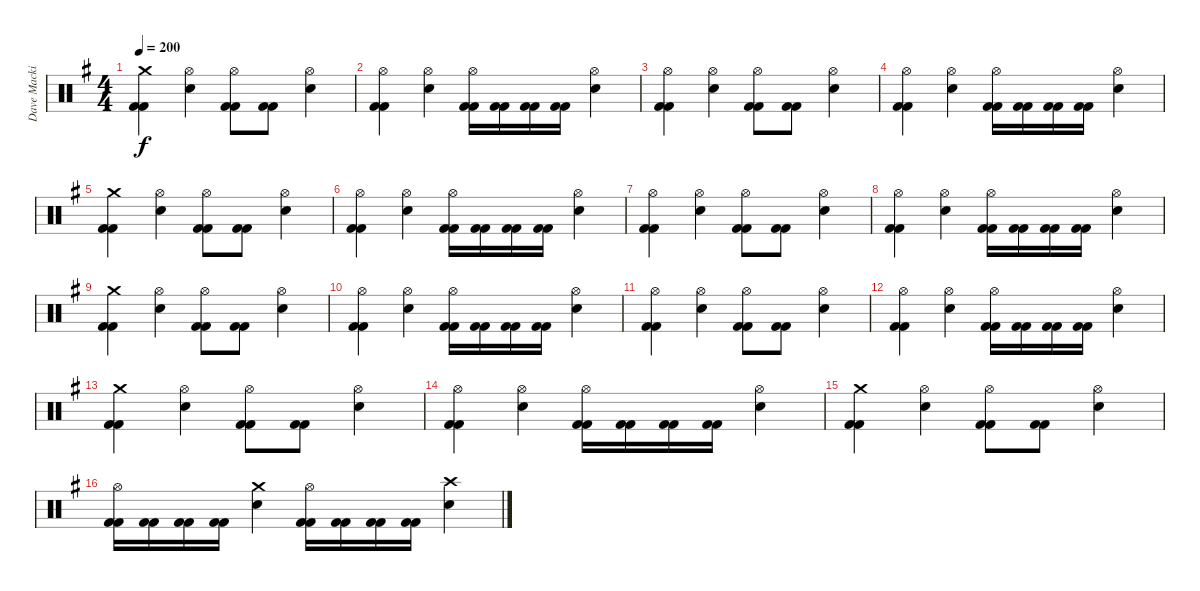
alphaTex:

\track ("Dave Mackintosh" "Dave Macki") {instrument percussion}
\staff {score}
\articulation defaults
\ts (4 4)
\tempo 200
\clef neutral
\ks g
("Crash medium (hit)" "Kick (hit) 2" "Kick (hit) 2").4{dy f} ("Hi-Hat (open)" "Electric Snare (hit)").4 ("Hi-Hat (open)" "Kick (hit) 2" "Kick (hit) 2").8 ("Kick (hit) 2" "Kick (hit) 2").8 ("Hi-Hat (open)" "Electric Snare (hit)").4 |
("Hi-Hat (open)" "Kick (hit) 2" "Kick (hit) 2").4 ("Hi-Hat (open)" "Electric Snare (hit)").4 ("Hi-Hat (open)" "Kick (hit) 2" "Kick (hit) 2").16 ("Kick (hit) 2" "Kick (hit) 2").16 ("Kick (hit) 2" "Kick (hit) 2").16 ("Kick (hit) 2" "Kick (hit) 2").16 ("Hi-Hat (open)" "Electric Snare (hit)").4 |
("Hi-Hat (open)" "Kick (hit) 2" "Kick (hit) 2").4 ("Hi-Hat (open)" "Electric Snare (hit)").4 ("Hi-Hat (open)" "Kick (hit) 2" "Kick (hit) 2").8 ("Kick (hit) 2" "Kick (hit) 2").8 ("Hi-Hat (open)" "Electric Snare (hit)").4 |
("Hi-Hat (open)" "Kick (hit) 2" "Kick (hit) 2").4 ("Hi-Hat (open)" "Electric Snare (hit)").4 ("Hi-Hat (open)" "Kick (hit) 2" "Kick (hit) 2").16 ("Kick (hit) 2" "Kick (hit) 2").16 ("Kick (hit) 2" "Kick (hit) 2").16 ("Kick (hit) 2" "Kick (hit) 2").16 ("Hi-Hat (open)" "Electric Snare (hit)").4 |
("Crash medium (hit)" "Kick (hit) 2" "Kick (hit) 2").4 ("Hi-Hat (open)" "Electric Snare (hit)").4 ("Hi-Hat (open)" "Kick (hit) 2" "Kick (hit) 2").8 ("Kick (hit) 2" "Kick (hit) 2").8 ("Hi-Hat (open)" "Electric Snare (hit)").4 |
("Hi-Hat (open)" "Kick (hit) 2" "Kick (hit) 2").4 ("Hi-Hat (open)" "Electric Snare (hit)").4 ("Hi-Hat (open)" "Kick (hit) 2" "Kick (hit) 2").16 ("Kick (hit) 2" "Kick (hit) 2").16 ("Kick (hit) 2" "Kick (hit) 2").16 ("Kick (hit) 2" "Kick (hit) 2").16 ("Hi-Hat (open)" "Electric Snare (hit)").4 |
("Hi-Hat (open)" "Kick (hit) 2" "Kick (hit) 2").4 ("Hi-Hat (open)" "Electric Snare (hit)").4 ("Hi-Hat (open)" "Kick (hit) 2" "Kick (hit) 2").8 ("Kick (hit) 2" "Kick (hit) 2").8 ("Hi-Hat (open)" "Electric Snare (hit)").4 |
("Hi-Hat (open)" "Kick (hit) 2" "Kick (hit) 2").4 ("Hi-Hat (open)" "Electric Snare (hit)").4 ("Hi-Hat (open)" "Kick (hit) 2" "Kick (hit) 2").16 ("Kick (hit) 2" "Kick (hit) 2").16 ("Kick (hit) 2" "Kick (hit) 2").16 ("Kick (hit) 2" "Kick (hit) 2").16 ("Hi-Hat (open)" "Electric Snare (hit)").4 |
("Crash medium (hit)" "Kick (hit) 2" "Kick (hit) 2").4 ("Hi-Hat (open)" "Electric Snare (hit)").4 ("Hi-Hat (open)" "Kick (hit) 2" "Kick (hit) 2").8 ("Kick (hit) 2" "Kick (hit) 2").8 ("Hi-Hat (open)" "Electric Snare (hit)").4 |
("Hi-Hat (open)" "Kick (hit) 2" "Kick (hit) 2").4 ("Hi-Hat (open)" "Electric Snare (hit)").4 ("Hi-Hat (open)" "Kick (hit) 2" "Kick (hit) 2").16 ("Kick (hit) 2" "Kick (hit) 2").16 ("Kick (hit) 2" "Kick (hit) 2").16 ("Kick (hit) 2" "Kick (hit) 2").16 ("Hi-Hat (open)" "Electric Snare (hit)").4 |
("Hi-Hat (open)" "Kick (hit) 2" "Kick (hit) 2").4 ("Hi-Hat (open)" "Electric Snare (hit)").4 ("Hi-Hat (open)" "Kick (hit) 2" "Kick (hit) 2").8 ("Kick (hit) 2" "Kick (hit) 2").8 ("Hi-Hat (open)" "Electric Snare (hit)").4 |
("Hi-Hat (open)" "Kick (hit) 2" "Kick (hit) 2").4 ("Hi-Hat (open)" "Electric Snare (hit)").4 ("Hi-Hat (open)" "Kick (hit) 2" "Kick (hit) 2").16 ("Kick (hit) 2" "Kick (hit) 2").16 ("Kick (hit) 2" "Kick (hit) 2").16 ("Kick (hit) 2" "Kick (hit) 2").16 ("Hi-Hat (open)" "Electric Snare (hit)").4 |
("Crash medium (hit)" "Kick (hit) 2" "Kick (hit) 2").4 ("Hi-Hat (open)" "Electric Snare (hit)").4 ("Hi-Hat (open)" "Kick (hit) 2" "Kick (hit) 2").8 ("Kick (hit) 2" "Kick (hit) 2").8 ("Hi-Hat (open)" "Electric Snare (hit)").4 |
("Hi-Hat (open)" "Kick (hit) 2" "Kick (hit) 2").4 ("Hi-Hat (open)" "Electric Snare (hit)").4 ("Hi-Hat (open)" "Kick (hit) 2" "Kick (hit) 2").16 ("Kick (hit) 2" "Kick (hit) 2").16 ("Kick (hit) 2" "Kick (hit) 2").16 ("Kick (hit) 2" "Kick (hit) 2").16 ("Hi-Hat (open)" "Electric Snare (hit)").4 |
("Crash medium (hit)" "Kick (hit) 2" "Kick (hit) 2").4 ("Hi-Hat (open)" "Electric Snare (hit)").4 ("Hi-Hat (open)" "Kick (hit) 2" "Kick (hit) 2").8 ("Kick (hit) 2" "Kick (hit) 2").8 ("Hi-Hat (open)" "Electric Snare (hit)").4 |
("Hi-Hat (open)" "Kick (hit) 2" "Kick (hit) 2").16 ("Kick (hit) 2" "Kick (hit) 2").16 ("Kick (hit) 2" "Kick (hit) 2").16 ("Kick (hit) 2" "Kick (hit) 2").16 ("Crash medium (hit)" "Electric Snare (hit)").4 ("Hi-Hat (open)" "Kick (hit) 2" "Kick (hit) 2").16 ("Kick (hit) 2" "Kick (hit) 2").16 ("Kick (hit) 2" "Kick (hit) 2").16 ("Kick (hit) 2" "Kick (hit) 2").16 ("Crash high (hit)" "Electric Snare (hit)").4
